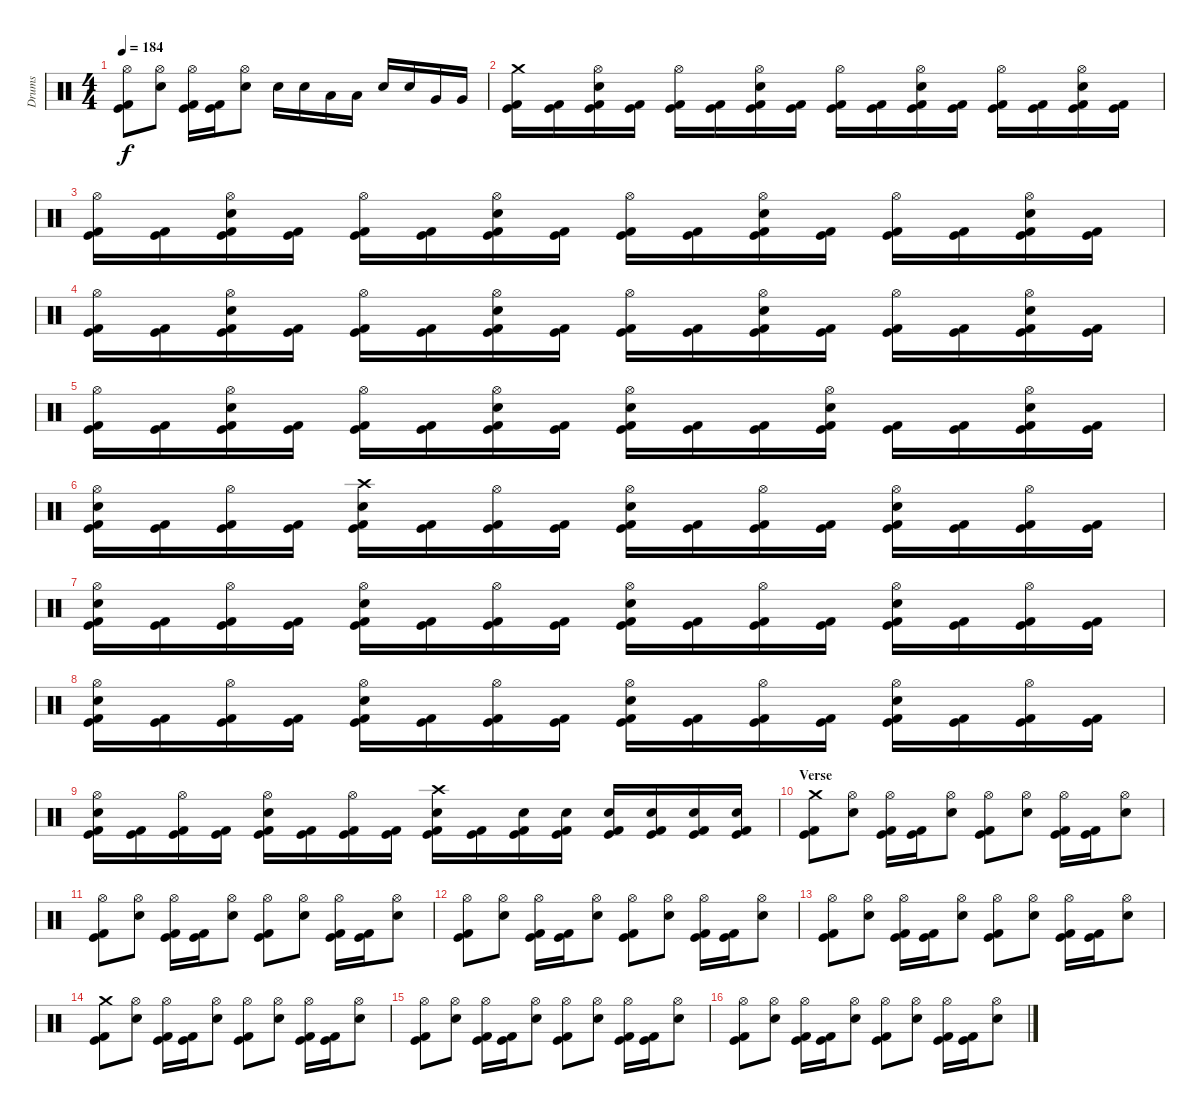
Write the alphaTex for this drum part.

\track ("Drums" "Drums") {instrument percussion}
\staff {score}
\articulation defaults
\ts (4 4)
\tempo 184
\clef neutral
\ks c
("Hi-Hat (open)" "Kick (hit)" "Kick (hit) 2").8{dy f} ("Hi-Hat (open)" "Electric Snare (hit)").8 ("Hi-Hat (open)" "Kick (hit)" "Kick (hit) 2").16 ("Kick (hit)" "Kick (hit) 2").16 ("Hi-Hat (open)" "Electric Snare (hit)").8 "Electric Snare (hit)".16 "Electric Snare (hit)".16 "Low Tom (hit)".16 "Low Tom (hit)".16 "Electric Snare (hit)".16 "Electric Snare (hit)".16 "Very Low Tom (hit)".16 "Very Low Tom (hit)".16 |
("Crash medium (hit)" "Kick (hit)" "Kick (hit) 2").16 ("Kick (hit)" "Kick (hit) 2").16 ("Hi-Hat (open)" "Electric Snare (hit)" "Kick (hit)" "Kick (hit) 2").16 ("Kick (hit)" "Kick (hit) 2").16 ("Hi-Hat (open)" "Kick (hit)" "Kick (hit) 2").16 ("Kick (hit)" "Kick (hit) 2").16 ("Hi-Hat (open)" "Electric Snare (hit)" "Kick (hit)" "Kick (hit) 2").16 ("Kick (hit)" "Kick (hit) 2").16 ("Hi-Hat (open)" "Kick (hit)" "Kick (hit) 2").16 ("Kick (hit)" "Kick (hit) 2").16 ("Hi-Hat (open)" "Electric Snare (hit)" "Kick (hit)" "Kick (hit) 2").16 ("Kick (hit)" "Kick (hit) 2").16 ("Hi-Hat (open)" "Kick (hit)" "Kick (hit) 2").16 ("Kick (hit)" "Kick (hit) 2").16 ("Hi-Hat (open)" "Electric Snare (hit)" "Kick (hit)" "Kick (hit) 2").16 ("Kick (hit)" "Kick (hit) 2").16 |
("Hi-Hat (open)" "Kick (hit)" "Kick (hit) 2").16 ("Kick (hit)" "Kick (hit) 2").16 ("Hi-Hat (open)" "Electric Snare (hit)" "Kick (hit)" "Kick (hit) 2").16 ("Kick (hit)" "Kick (hit) 2").16 ("Hi-Hat (open)" "Kick (hit)" "Kick (hit) 2").16 ("Kick (hit)" "Kick (hit) 2").16 ("Hi-Hat (open)" "Electric Snare (hit)" "Kick (hit)" "Kick (hit) 2").16 ("Kick (hit)" "Kick (hit) 2").16 ("Hi-Hat (open)" "Kick (hit)" "Kick (hit) 2").16 ("Kick (hit)" "Kick (hit) 2").16 ("Hi-Hat (open)" "Electric Snare (hit)" "Kick (hit)" "Kick (hit) 2").16 ("Kick (hit)" "Kick (hit) 2").16 ("Hi-Hat (open)" "Kick (hit)" "Kick (hit) 2").16 ("Kick (hit)" "Kick (hit) 2").16 ("Hi-Hat (open)" "Electric Snare (hit)" "Kick (hit)" "Kick (hit) 2").16 ("Kick (hit)" "Kick (hit) 2").16 |
("Hi-Hat (open)" "Kick (hit)" "Kick (hit) 2").16 ("Kick (hit)" "Kick (hit) 2").16 ("Hi-Hat (open)" "Electric Snare (hit)" "Kick (hit)" "Kick (hit) 2").16 ("Kick (hit)" "Kick (hit) 2").16 ("Hi-Hat (open)" "Kick (hit)" "Kick (hit) 2").16 ("Kick (hit)" "Kick (hit) 2").16 ("Hi-Hat (open)" "Electric Snare (hit)" "Kick (hit)" "Kick (hit) 2").16 ("Kick (hit)" "Kick (hit) 2").16 ("Hi-Hat (open)" "Kick (hit)" "Kick (hit) 2").16 ("Kick (hit)" "Kick (hit) 2").16 ("Hi-Hat (open)" "Electric Snare (hit)" "Kick (hit)" "Kick (hit) 2").16 ("Kick (hit)" "Kick (hit) 2").16 ("Hi-Hat (open)" "Kick (hit)" "Kick (hit) 2").16 ("Kick (hit)" "Kick (hit) 2").16 ("Hi-Hat (open)" "Electric Snare (hit)" "Kick (hit)" "Kick (hit) 2").16 ("Kick (hit)" "Kick (hit) 2").16 |
("Hi-Hat (open)" "Kick (hit)" "Kick (hit) 2").16 ("Kick (hit)" "Kick (hit) 2").16 ("Hi-Hat (open)" "Electric Snare (hit)" "Kick (hit)" "Kick (hit) 2").16 ("Kick (hit)" "Kick (hit) 2").16 ("Hi-Hat (open)" "Kick (hit)" "Kick (hit) 2").16 ("Kick (hit)" "Kick (hit) 2").16 ("Hi-Hat (open)" "Electric Snare (hit)" "Kick (hit)" "Kick (hit) 2").16 ("Kick (hit)" "Kick (hit) 2").16 ("Hi-Hat (open)" "Electric Snare (hit)" "Kick (hit)" "Kick (hit) 2").16 ("Kick (hit)" "Kick (hit) 2").16 ("Kick (hit)" "Kick (hit) 2").16 ("Hi-Hat (open)" "Electric Snare (hit)" "Kick (hit)" "Kick (hit) 2").16 ("Kick (hit)" "Kick (hit) 2").16 ("Kick (hit)" "Kick (hit) 2").16 ("Hi-Hat (open)" "Electric Snare (hit)" "Kick (hit)" "Kick (hit) 2").16 ("Kick (hit)" "Kick (hit) 2").16 |
("Hi-Hat (open)" "Electric Snare (hit)" "Kick (hit)" "Kick (hit) 2").16 ("Kick (hit)" "Kick (hit) 2").16 ("Hi-Hat (open)" "Kick (hit)" "Kick (hit) 2").16 ("Kick (hit)" "Kick (hit) 2").16 ("Crash high (hit)" "Electric Snare (hit)" "Kick (hit)" "Kick (hit) 2").16 ("Kick (hit)" "Kick (hit) 2").16 ("Hi-Hat (open)" "Kick (hit)" "Kick (hit) 2").16 ("Kick (hit)" "Kick (hit) 2").16 ("Hi-Hat (open)" "Electric Snare (hit)" "Kick (hit)" "Kick (hit) 2").16 ("Kick (hit)" "Kick (hit) 2").16 ("Hi-Hat (open)" "Kick (hit)" "Kick (hit) 2").16 ("Kick (hit)" "Kick (hit) 2").16 ("Hi-Hat (open)" "Electric Snare (hit)" "Kick (hit)" "Kick (hit) 2").16 ("Kick (hit)" "Kick (hit) 2").16 ("Hi-Hat (open)" "Kick (hit)" "Kick (hit) 2").16 ("Kick (hit)" "Kick (hit) 2").16 |
("Hi-Hat (open)" "Electric Snare (hit)" "Kick (hit)" "Kick (hit) 2").16 ("Kick (hit)" "Kick (hit) 2").16 ("Hi-Hat (open)" "Kick (hit)" "Kick (hit) 2").16 ("Kick (hit)" "Kick (hit) 2").16 ("Hi-Hat (open)" "Electric Snare (hit)" "Kick (hit)" "Kick (hit) 2").16 ("Kick (hit)" "Kick (hit) 2").16 ("Hi-Hat (open)" "Kick (hit)" "Kick (hit) 2").16 ("Kick (hit)" "Kick (hit) 2").16 ("Hi-Hat (open)" "Electric Snare (hit)" "Kick (hit)" "Kick (hit) 2").16 ("Kick (hit)" "Kick (hit) 2").16 ("Hi-Hat (open)" "Kick (hit)" "Kick (hit) 2").16 ("Kick (hit)" "Kick (hit) 2").16 ("Hi-Hat (open)" "Electric Snare (hit)" "Kick (hit)" "Kick (hit) 2").16 ("Kick (hit)" "Kick (hit) 2").16 ("Hi-Hat (open)" "Kick (hit)" "Kick (hit) 2").16 ("Kick (hit)" "Kick (hit) 2").16 |
("Hi-Hat (open)" "Electric Snare (hit)" "Kick (hit)" "Kick (hit) 2").16 ("Kick (hit)" "Kick (hit) 2").16 ("Hi-Hat (open)" "Kick (hit)" "Kick (hit) 2").16 ("Kick (hit)" "Kick (hit) 2").16 ("Hi-Hat (open)" "Electric Snare (hit)" "Kick (hit)" "Kick (hit) 2").16 ("Kick (hit)" "Kick (hit) 2").16 ("Hi-Hat (open)" "Kick (hit)" "Kick (hit) 2").16 ("Kick (hit)" "Kick (hit) 2").16 ("Hi-Hat (open)" "Electric Snare (hit)" "Kick (hit)" "Kick (hit) 2").16 ("Kick (hit)" "Kick (hit) 2").16 ("Hi-Hat (open)" "Kick (hit)" "Kick (hit) 2").16 ("Kick (hit)" "Kick (hit) 2").16 ("Hi-Hat (open)" "Electric Snare (hit)" "Kick (hit)" "Kick (hit) 2").16 ("Kick (hit)" "Kick (hit) 2").16 ("Hi-Hat (open)" "Kick (hit)" "Kick (hit) 2").16 ("Kick (hit)" "Kick (hit) 2").16 |
("Hi-Hat (open)" "Electric Snare (hit)" "Kick (hit)" "Kick (hit) 2").16 ("Kick (hit)" "Kick (hit) 2").16 ("Hi-Hat (open)" "Kick (hit)" "Kick (hit) 2").16 ("Kick (hit)" "Kick (hit) 2").16 ("Hi-Hat (open)" "Electric Snare (hit)" "Kick (hit)" "Kick (hit) 2").16 ("Kick (hit)" "Kick (hit) 2").16 ("Hi-Hat (open)" "Kick (hit)" "Kick (hit) 2").16 ("Kick (hit)" "Kick (hit) 2").16 ("Crash high (hit)" "Electric Snare (hit)" "Kick (hit)" "Kick (hit) 2").16 ("Kick (hit)" "Kick (hit) 2").16 ("Electric Snare (hit)" "Kick (hit)" "Kick (hit) 2").16 ("Electric Snare (hit)" "Kick (hit)" "Kick (hit) 2").16 ("Electric Snare (hit)" "Kick (hit)" "Kick (hit) 2").16 ("Electric Snare (hit)" "Kick (hit)" "Kick (hit) 2").16 ("Electric Snare (hit)" "Kick (hit)" "Kick (hit) 2").16 ("Electric Snare (hit)" "Kick (hit)" "Kick (hit) 2").16 |
\section ("" "Verse")
("Crash medium (hit)" "Kick (hit)" "Kick (hit) 2").8 ("Hi-Hat (open)" "Electric Snare (hit)").8 ("Hi-Hat (open)" "Kick (hit)" "Kick (hit) 2").16 ("Kick (hit)" "Kick (hit) 2").16 ("Hi-Hat (open)" "Electric Snare (hit)").8 ("Hi-Hat (open)" "Kick (hit)" "Kick (hit) 2").8 ("Hi-Hat (open)" "Electric Snare (hit)").8 ("Hi-Hat (open)" "Kick (hit)" "Kick (hit) 2").16 ("Kick (hit)" "Kick (hit) 2").16 ("Hi-Hat (open)" "Electric Snare (hit)").8 |
("Hi-Hat (open)" "Kick (hit)" "Kick (hit) 2").8 ("Hi-Hat (open)" "Electric Snare (hit)").8 ("Hi-Hat (open)" "Kick (hit)" "Kick (hit) 2").16 ("Kick (hit)" "Kick (hit) 2").16 ("Hi-Hat (open)" "Electric Snare (hit)").8 ("Hi-Hat (open)" "Kick (hit)" "Kick (hit) 2").8 ("Hi-Hat (open)" "Electric Snare (hit)").8 ("Hi-Hat (open)" "Kick (hit)" "Kick (hit) 2").16 ("Kick (hit)" "Kick (hit) 2").16 ("Hi-Hat (open)" "Electric Snare (hit)").8 |
("Hi-Hat (open)" "Kick (hit)" "Kick (hit) 2").8 ("Hi-Hat (open)" "Electric Snare (hit)").8 ("Hi-Hat (open)" "Kick (hit)" "Kick (hit) 2").16 ("Kick (hit)" "Kick (hit) 2").16 ("Hi-Hat (open)" "Electric Snare (hit)").8 ("Hi-Hat (open)" "Kick (hit)" "Kick (hit) 2").8 ("Hi-Hat (open)" "Electric Snare (hit)").8 ("Hi-Hat (open)" "Kick (hit)" "Kick (hit) 2").16 ("Kick (hit)" "Kick (hit) 2").16 ("Hi-Hat (open)" "Electric Snare (hit)").8 |
("Hi-Hat (open)" "Kick (hit)" "Kick (hit) 2").8 ("Hi-Hat (open)" "Electric Snare (hit)").8 ("Hi-Hat (open)" "Kick (hit)" "Kick (hit) 2").16 ("Kick (hit)" "Kick (hit) 2").16 ("Hi-Hat (open)" "Electric Snare (hit)").8 ("Hi-Hat (open)" "Kick (hit)" "Kick (hit) 2").8 ("Hi-Hat (open)" "Electric Snare (hit)").8 ("Hi-Hat (open)" "Kick (hit)" "Kick (hit) 2").16 ("Kick (hit)" "Kick (hit) 2").16 ("Hi-Hat (open)" "Electric Snare (hit)").8 |
("Crash medium (hit)" "Kick (hit)" "Kick (hit) 2").8 ("Hi-Hat (open)" "Electric Snare (hit)").8 ("Hi-Hat (open)" "Kick (hit)" "Kick (hit) 2").16 ("Kick (hit)" "Kick (hit) 2").16 ("Hi-Hat (open)" "Electric Snare (hit)").8 ("Hi-Hat (open)" "Kick (hit)" "Kick (hit) 2").8 ("Hi-Hat (open)" "Electric Snare (hit)").8 ("Hi-Hat (open)" "Kick (hit)" "Kick (hit) 2").16 ("Kick (hit)" "Kick (hit) 2").16 ("Hi-Hat (open)" "Electric Snare (hit)").8 |
("Hi-Hat (open)" "Kick (hit)" "Kick (hit) 2").8 ("Hi-Hat (open)" "Electric Snare (hit)").8 ("Hi-Hat (open)" "Kick (hit)" "Kick (hit) 2").16 ("Kick (hit)" "Kick (hit) 2").16 ("Hi-Hat (open)" "Electric Snare (hit)").8 ("Hi-Hat (open)" "Kick (hit)" "Kick (hit) 2").8 ("Hi-Hat (open)" "Electric Snare (hit)").8 ("Hi-Hat (open)" "Kick (hit)" "Kick (hit) 2").16 ("Kick (hit)" "Kick (hit) 2").16 ("Hi-Hat (open)" "Electric Snare (hit)").8 |
("Hi-Hat (open)" "Kick (hit)" "Kick (hit) 2").8 ("Hi-Hat (open)" "Electric Snare (hit)").8 ("Hi-Hat (open)" "Kick (hit)" "Kick (hit) 2").16 ("Kick (hit)" "Kick (hit) 2").16 ("Hi-Hat (open)" "Electric Snare (hit)").8 ("Hi-Hat (open)" "Kick (hit)" "Kick (hit) 2").8 ("Hi-Hat (open)" "Electric Snare (hit)").8 ("Hi-Hat (open)" "Kick (hit)" "Kick (hit) 2").16 ("Kick (hit)" "Kick (hit) 2").16 ("Hi-Hat (open)" "Electric Snare (hit)").8
